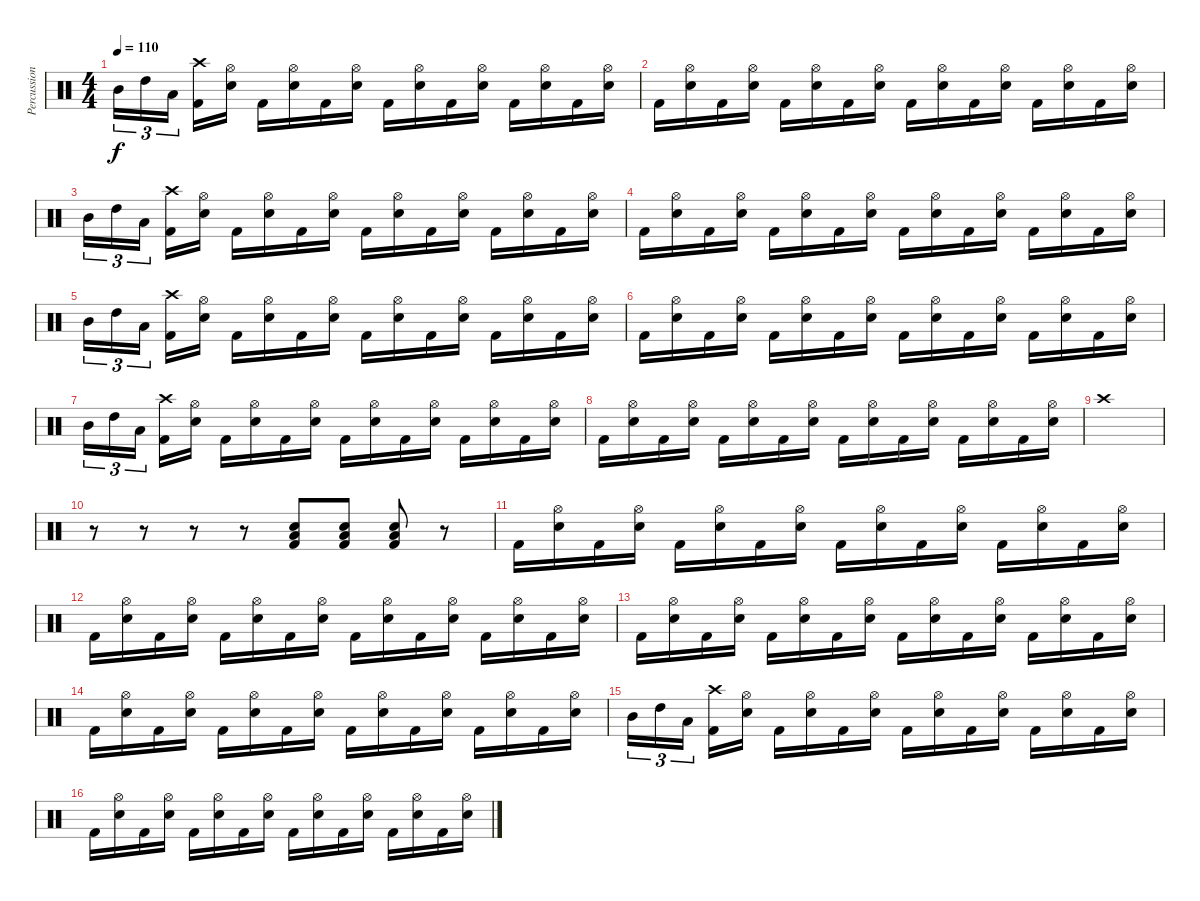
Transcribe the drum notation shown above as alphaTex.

\track ("Percussion" "Percussion") {instrument percussion}
\staff {score}
\articulation defaults
\ts (4 4)
\tempo 110
\clef neutral
\ks c "Mid Tom (hit)".16{tu (3 2) dy f} "High Tom (hit)".16{tu (3 2)} "Low Tom (hit)".16{tu (3 2)}
("Crash high (hit)" "Kick (hit) 2").16 ("Hi-Hat (open)" "Snare (hit) 2").16 "Kick (hit) 2".16 ("Hi-Hat (open)" "Snare (hit) 2").16 "Kick (hit) 2".16 ("Hi-Hat (open)" "Snare (hit) 2").16 "Kick (hit) 2".16 ("Hi-Hat (open)" "Snare (hit) 2").16 "Kick (hit) 2".16 ("Hi-Hat (open)" "Snare (hit) 2").16 "Kick (hit) 2".16 ("Hi-Hat (open)" "Snare (hit) 2").16 "Kick (hit) 2".16 ("Hi-Hat (open)" "Snare (hit) 2").16 |
"Kick (hit) 2".16 ("Hi-Hat (open)" "Snare (hit) 2").16 "Kick (hit) 2".16 ("Hi-Hat (open)" "Snare (hit) 2").16 "Kick (hit) 2".16 ("Hi-Hat (open)" "Snare (hit) 2").16 "Kick (hit) 2".16 ("Hi-Hat (open)" "Snare (hit) 2").16 "Kick (hit) 2".16 ("Hi-Hat (open)" "Snare (hit) 2").16 "Kick (hit) 2".16 ("Hi-Hat (open)" "Snare (hit) 2").16 "Kick (hit) 2".16 ("Hi-Hat (open)" "Snare (hit) 2").16 "Kick (hit) 2".16 ("Hi-Hat (open)" "Snare (hit) 2").16 |
"Mid Tom (hit)".16{tu (3 2)} "High Tom (hit)".16{tu (3 2)} "Low Tom (hit)".16{tu (3 2)} ("Crash high (hit)" "Kick (hit) 2").16 ("Hi-Hat (open)" "Snare (hit) 2").16 "Kick (hit) 2".16 ("Hi-Hat (open)" "Snare (hit) 2").16 "Kick (hit) 2".16 ("Hi-Hat (open)" "Snare (hit) 2").16 "Kick (hit) 2".16 ("Hi-Hat (open)" "Snare (hit) 2").16 "Kick (hit) 2".16 ("Hi-Hat (open)" "Snare (hit) 2").16 "Kick (hit) 2".16 ("Hi-Hat (open)" "Snare (hit) 2").16 "Kick (hit) 2".16 ("Hi-Hat (open)" "Snare (hit) 2").16 |
"Kick (hit) 2".16 ("Hi-Hat (open)" "Snare (hit) 2").16 "Kick (hit) 2".16 ("Hi-Hat (open)" "Snare (hit) 2").16 "Kick (hit) 2".16 ("Hi-Hat (open)" "Snare (hit) 2").16 "Kick (hit) 2".16 ("Hi-Hat (open)" "Snare (hit) 2").16 "Kick (hit) 2".16 ("Hi-Hat (open)" "Snare (hit) 2").16 "Kick (hit) 2".16 ("Hi-Hat (open)" "Snare (hit) 2").16 "Kick (hit) 2".16 ("Hi-Hat (open)" "Snare (hit) 2").16 "Kick (hit) 2".16 ("Hi-Hat (open)" "Snare (hit) 2").16 |
"Mid Tom (hit)".16{tu (3 2)} "High Tom (hit)".16{tu (3 2)} "Low Tom (hit)".16{tu (3 2)} ("Crash high (hit)" "Kick (hit) 2").16 ("Hi-Hat (open)" "Snare (hit) 2").16 "Kick (hit) 2".16 ("Hi-Hat (open)" "Snare (hit) 2").16 "Kick (hit) 2".16 ("Hi-Hat (open)" "Snare (hit) 2").16 "Kick (hit) 2".16 ("Hi-Hat (open)" "Snare (hit) 2").16 "Kick (hit) 2".16 ("Hi-Hat (open)" "Snare (hit) 2").16 "Kick (hit) 2".16 ("Hi-Hat (open)" "Snare (hit) 2").16 "Kick (hit) 2".16 ("Hi-Hat (open)" "Snare (hit) 2").16 |
"Kick (hit) 2".16 ("Hi-Hat (open)" "Snare (hit) 2").16 "Kick (hit) 2".16 ("Hi-Hat (open)" "Snare (hit) 2").16 "Kick (hit) 2".16 ("Hi-Hat (open)" "Snare (hit) 2").16 "Kick (hit) 2".16 ("Hi-Hat (open)" "Snare (hit) 2").16 "Kick (hit) 2".16 ("Hi-Hat (open)" "Snare (hit) 2").16 "Kick (hit) 2".16 ("Hi-Hat (open)" "Snare (hit) 2").16 "Kick (hit) 2".16 ("Hi-Hat (open)" "Snare (hit) 2").16 "Kick (hit) 2".16 ("Hi-Hat (open)" "Snare (hit) 2").16 |
"Mid Tom (hit)".16{tu (3 2)} "High Tom (hit)".16{tu (3 2)} "Low Tom (hit)".16{tu (3 2)} ("Crash high (hit)" "Kick (hit) 2").16 ("Hi-Hat (open)" "Snare (hit) 2").16 "Kick (hit) 2".16 ("Hi-Hat (open)" "Snare (hit) 2").16 "Kick (hit) 2".16 ("Hi-Hat (open)" "Snare (hit) 2").16 "Kick (hit) 2".16 ("Hi-Hat (open)" "Snare (hit) 2").16 "Kick (hit) 2".16 ("Hi-Hat (open)" "Snare (hit) 2").16 "Kick (hit) 2".16 ("Hi-Hat (open)" "Snare (hit) 2").16 "Kick (hit) 2".16 ("Hi-Hat (open)" "Snare (hit) 2").16 |
"Kick (hit) 2".16 ("Hi-Hat (open)" "Snare (hit) 2").16 "Kick (hit) 2".16 ("Hi-Hat (open)" "Snare (hit) 2").16 "Kick (hit) 2".16 ("Hi-Hat (open)" "Snare (hit) 2").16 "Kick (hit) 2".16 ("Hi-Hat (open)" "Snare (hit) 2").16 "Kick (hit) 2".16 ("Hi-Hat (open)" "Snare (hit) 2").16 "Kick (hit) 2".16 ("Hi-Hat (open)" "Snare (hit) 2").16 "Kick (hit) 2".16 ("Hi-Hat (open)" "Snare (hit) 2").16 "Kick (hit) 2".16 ("Hi-Hat (open)" "Snare (hit) 2").16 |
"Crash high (hit)".1 |
r.8 r.8 r.8 r.8 ("Low Floor Tom (hit)" "Snare (hit) 2" "Kick (hit) 2").8 ("Low Floor Tom (hit)" "Snare (hit) 2" "Kick (hit) 2").8 ("Low Floor Tom (hit)" "Snare (hit) 2" "Kick (hit) 2").8 r.8 |
"Kick (hit) 2".16 ("Hi-Hat (open)" "Snare (hit) 2").16 "Kick (hit) 2".16 ("Hi-Hat (open)" "Snare (hit) 2").16 "Kick (hit) 2".16 ("Hi-Hat (open)" "Snare (hit) 2").16 "Kick (hit) 2".16 ("Hi-Hat (open)" "Snare (hit) 2").16 "Kick (hit) 2".16 ("Hi-Hat (open)" "Snare (hit) 2").16 "Kick (hit) 2".16 ("Hi-Hat (open)" "Snare (hit) 2").16 "Kick (hit) 2".16 ("Hi-Hat (open)" "Snare (hit) 2").16 "Kick (hit) 2".16 ("Hi-Hat (open)" "Snare (hit) 2").16 |
"Kick (hit) 2".16 ("Hi-Hat (open)" "Snare (hit) 2").16 "Kick (hit) 2".16 ("Hi-Hat (open)" "Snare (hit) 2").16 "Kick (hit) 2".16 ("Hi-Hat (open)" "Snare (hit) 2").16 "Kick (hit) 2".16 ("Hi-Hat (open)" "Snare (hit) 2").16 "Kick (hit) 2".16 ("Hi-Hat (open)" "Snare (hit) 2").16 "Kick (hit) 2".16 ("Hi-Hat (open)" "Snare (hit) 2").16 "Kick (hit) 2".16 ("Hi-Hat (open)" "Snare (hit) 2").16 "Kick (hit) 2".16 ("Hi-Hat (open)" "Snare (hit) 2").16 |
"Kick (hit) 2".16 ("Hi-Hat (open)" "Snare (hit) 2").16 "Kick (hit) 2".16 ("Hi-Hat (open)" "Snare (hit) 2").16 "Kick (hit) 2".16 ("Hi-Hat (open)" "Snare (hit) 2").16 "Kick (hit) 2".16 ("Hi-Hat (open)" "Snare (hit) 2").16 "Kick (hit) 2".16 ("Hi-Hat (open)" "Snare (hit) 2").16 "Kick (hit) 2".16 ("Hi-Hat (open)" "Snare (hit) 2").16 "Kick (hit) 2".16 ("Hi-Hat (open)" "Snare (hit) 2").16 "Kick (hit) 2".16 ("Hi-Hat (open)" "Snare (hit) 2").16 |
"Kick (hit) 2".16 ("Hi-Hat (open)" "Snare (hit) 2").16 "Kick (hit) 2".16 ("Hi-Hat (open)" "Snare (hit) 2").16 "Kick (hit) 2".16 ("Hi-Hat (open)" "Snare (hit) 2").16 "Kick (hit) 2".16 ("Hi-Hat (open)" "Snare (hit) 2").16 "Kick (hit) 2".16 ("Hi-Hat (open)" "Snare (hit) 2").16 "Kick (hit) 2".16 ("Hi-Hat (open)" "Snare (hit) 2").16 "Kick (hit) 2".16 ("Hi-Hat (open)" "Snare (hit) 2").16 "Kick (hit) 2".16 ("Hi-Hat (open)" "Snare (hit) 2").16 |
"Mid Tom (hit)".16{tu (3 2)} "High Tom (hit)".16{tu (3 2)} "Low Tom (hit)".16{tu (3 2)} ("Crash high (hit)" "Kick (hit) 2").16 ("Hi-Hat (open)" "Snare (hit) 2").16 "Kick (hit) 2".16 ("Hi-Hat (open)" "Snare (hit) 2").16 "Kick (hit) 2".16 ("Hi-Hat (open)" "Snare (hit) 2").16 "Kick (hit) 2".16 ("Hi-Hat (open)" "Snare (hit) 2").16 "Kick (hit) 2".16 ("Hi-Hat (open)" "Snare (hit) 2").16 "Kick (hit) 2".16 ("Hi-Hat (open)" "Snare (hit) 2").16 "Kick (hit) 2".16 ("Hi-Hat (open)" "Snare (hit) 2").16 |
"Kick (hit) 2".16 ("Hi-Hat (open)" "Snare (hit) 2").16 "Kick (hit) 2".16 ("Hi-Hat (open)" "Snare (hit) 2").16 "Kick (hit) 2".16 ("Hi-Hat (open)" "Snare (hit) 2").16 "Kick (hit) 2".16 ("Hi-Hat (open)" "Snare (hit) 2").16 "Kick (hit) 2".16 ("Hi-Hat (open)" "Snare (hit) 2").16 "Kick (hit) 2".16 ("Hi-Hat (open)" "Snare (hit) 2").16 "Kick (hit) 2".16 ("Hi-Hat (open)" "Snare (hit) 2").16 "Kick (hit) 2".16 ("Hi-Hat (open)" "Snare (hit) 2").16
